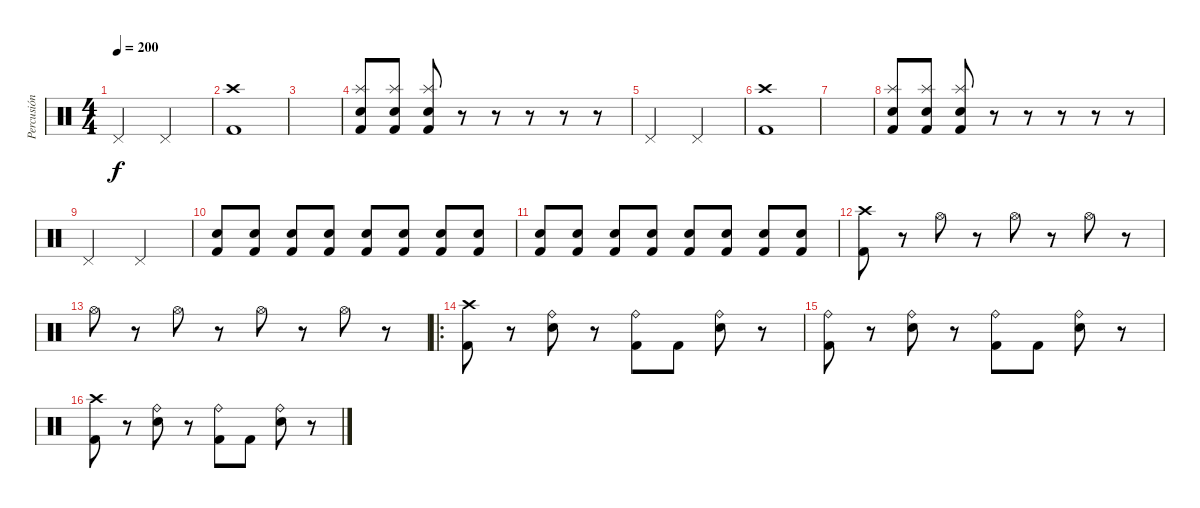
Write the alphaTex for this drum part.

\track ("Percusión" "Percusión") {instrument percussion}
\staff {score}
\articulation defaults
\ts (4 4)
\tempo 200
\clef neutral
\ks c "Pedal Hi-Hat (hit)".2{dy f} "Pedal Hi-Hat (hit)".2
|
("Crash high (hit)" "Kick (hit) 2").1 |
|
("Splash (hit)" "Kick (hit) 2" "Electric Snare (hit)").8 ("Splash (hit)" "Kick (hit) 2" "Electric Snare (hit)").8 ("Splash (hit)" "Kick (hit) 2" "Electric Snare (hit)").8 r.8 r.8 r.8 r.8 r.8 |
"Pedal Hi-Hat (hit)".2 "Pedal Hi-Hat (hit)".2 |
("Crash high (hit)" "Kick (hit) 2").1 |
|
("Splash (hit)" "Kick (hit) 2" "Electric Snare (hit)").8 ("Splash (hit)" "Kick (hit) 2" "Electric Snare (hit)").8 ("Splash (hit)" "Kick (hit) 2" "Electric Snare (hit)").8 r.8 r.8 r.8 r.8 r.8 |
"Pedal Hi-Hat (hit)".2 "Pedal Hi-Hat (hit)".2 |
("Kick (hit) 2" "Electric Snare (hit)").8 ("Kick (hit) 2" "Electric Snare (hit)").8 ("Kick (hit) 2" "Electric Snare (hit)").8 ("Kick (hit) 2" "Electric Snare (hit)").8 ("Kick (hit) 2" "Electric Snare (hit)").8 ("Kick (hit) 2" "Electric Snare (hit)").8 ("Kick (hit) 2" "Electric Snare (hit)").8 ("Kick (hit) 2" "Electric Snare (hit)").8 |
("Kick (hit) 2" "Electric Snare (hit)").8 ("Kick (hit) 2" "Electric Snare (hit)").8 ("Kick (hit) 2" "Electric Snare (hit)").8 ("Kick (hit) 2" "Electric Snare (hit)").8 ("Kick (hit) 2" "Electric Snare (hit)").8 ("Kick (hit) 2" "Electric Snare (hit)").8 ("Kick (hit) 2" "Electric Snare (hit)").8 ("Kick (hit) 2" "Electric Snare (hit)").8 |
("Crash high (hit)" "Kick (hit) 2").8 r.8 "Hi-Hat (open)".8 r.8 "Hi-Hat (open)".8 r.8 "Hi-Hat (open)".8 r.8 |
"Hi-Hat (open)".8 r.8 "Hi-Hat (open)".8 r.8 "Hi-Hat (open)".8 r.8 "Hi-Hat (open)".8 r.8 |
\ro
("Crash high (hit)" "Kick (hit) 2").8 r.8 ("Ride (bell)" "Electric Snare (hit)").8 r.8 ("Ride (bell)" "Kick (hit) 2").8 "Kick (hit) 2".8 ("Ride (bell)" "Electric Snare (hit)").8 r.8 |
("Ride (bell)" "Kick (hit) 2").8 r.8 ("Ride (bell)" "Electric Snare (hit)").8 r.8 ("Ride (bell)" "Kick (hit) 2").8 "Kick (hit) 2".8 ("Ride (bell)" "Electric Snare (hit)").8 r.8 |
("Crash high (hit)" "Kick (hit) 2").8 r.8 ("Ride (bell)" "Electric Snare (hit)").8 r.8 ("Ride (bell)" "Kick (hit) 2").8 "Kick (hit) 2".8 ("Ride (bell)" "Electric Snare (hit)").8 r.8
